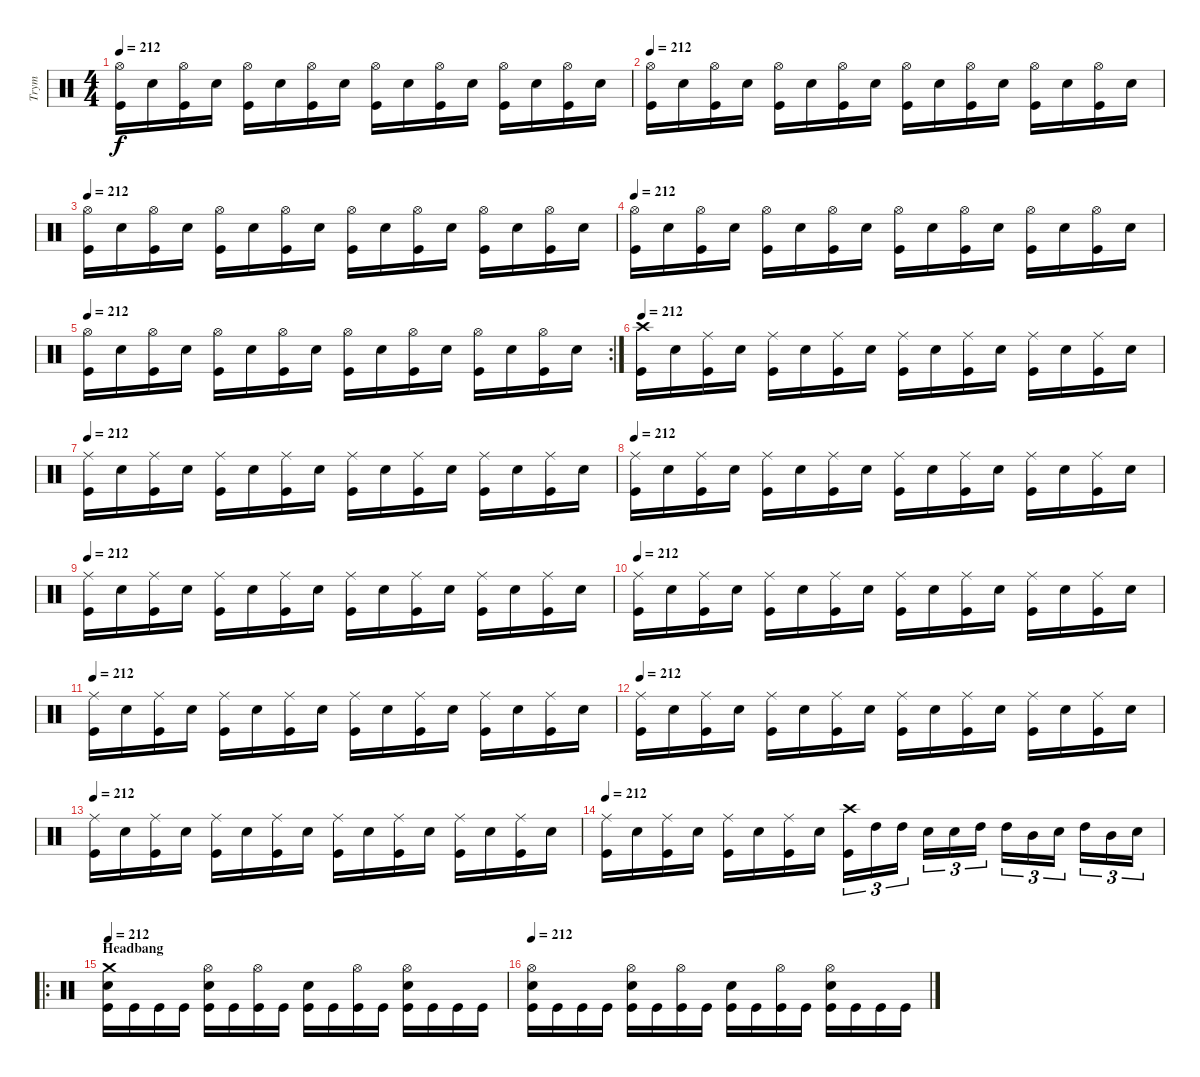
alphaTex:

\track ("Trym" "Trym") {instrument percussion}
\staff {score}
\articulation defaults
\ts (4 4)
\tempo 212
\clef neutral
\ks c
("Hi-Hat (open)" "Kick (hit)").16{dy f} "Electric Snare (hit)".16 ("Hi-Hat (open)" "Kick (hit)").16 "Electric Snare (hit)".16 ("Hi-Hat (open)" "Kick (hit)").16 "Electric Snare (hit)".16 ("Hi-Hat (open)" "Kick (hit)").16 "Electric Snare (hit)".16 ("Hi-Hat (open)" "Kick (hit)").16 "Electric Snare (hit)".16 ("Hi-Hat (open)" "Kick (hit)").16 "Electric Snare (hit)".16 ("Hi-Hat (open)" "Kick (hit)").16 "Electric Snare (hit)".16 ("Hi-Hat (open)" "Kick (hit)").16 "Electric Snare (hit)".16 |
\tempo 212
("Hi-Hat (open)" "Kick (hit)").16 "Electric Snare (hit)".16 ("Hi-Hat (open)" "Kick (hit)").16 "Electric Snare (hit)".16 ("Hi-Hat (open)" "Kick (hit)").16 "Electric Snare (hit)".16 ("Hi-Hat (open)" "Kick (hit)").16 "Electric Snare (hit)".16 ("Hi-Hat (open)" "Kick (hit)").16 "Electric Snare (hit)".16 ("Hi-Hat (open)" "Kick (hit)").16 "Electric Snare (hit)".16 ("Hi-Hat (open)" "Kick (hit)").16 "Electric Snare (hit)".16 ("Hi-Hat (open)" "Kick (hit)").16 "Electric Snare (hit)".16 |
\tempo 212
("Hi-Hat (open)" "Kick (hit)").16 "Electric Snare (hit)".16 ("Hi-Hat (open)" "Kick (hit)").16 "Electric Snare (hit)".16 ("Hi-Hat (open)" "Kick (hit)").16 "Electric Snare (hit)".16 ("Hi-Hat (open)" "Kick (hit)").16 "Electric Snare (hit)".16 ("Hi-Hat (open)" "Kick (hit)").16 "Electric Snare (hit)".16 ("Hi-Hat (open)" "Kick (hit)").16 "Electric Snare (hit)".16 ("Hi-Hat (open)" "Kick (hit)").16 "Electric Snare (hit)".16 ("Hi-Hat (open)" "Kick (hit)").16 "Electric Snare (hit)".16 |
\tempo 212
("Hi-Hat (open)" "Kick (hit)").16 "Electric Snare (hit)".16 ("Hi-Hat (open)" "Kick (hit)").16 "Electric Snare (hit)".16 ("Hi-Hat (open)" "Kick (hit)").16 "Electric Snare (hit)".16 ("Hi-Hat (open)" "Kick (hit)").16 "Electric Snare (hit)".16 ("Hi-Hat (open)" "Kick (hit)").16 "Electric Snare (hit)".16 ("Hi-Hat (open)" "Kick (hit)").16 "Electric Snare (hit)".16 ("Hi-Hat (open)" "Kick (hit)").16 "Electric Snare (hit)".16 ("Hi-Hat (open)" "Kick (hit)").16 "Electric Snare (hit)".16 |
\rc 2
\tempo 212
("Hi-Hat (open)" "Kick (hit)").16 "Electric Snare (hit)".16 ("Hi-Hat (open)" "Kick (hit)").16 "Electric Snare (hit)".16 ("Hi-Hat (open)" "Kick (hit)").16 "Electric Snare (hit)".16 ("Hi-Hat (open)" "Kick (hit)").16 "Electric Snare (hit)".16 ("Hi-Hat (open)" "Kick (hit)").16 "Electric Snare (hit)".16 ("Hi-Hat (open)" "Kick (hit)").16 "Electric Snare (hit)".16 ("Hi-Hat (open)" "Kick (hit)").16 "Electric Snare (hit)".16 ("Hi-Hat (open)" "Kick (hit)").16 "Electric Snare (hit)".16 |
\tempo 208
\tempo 212
("Crash high (hit)" "Kick (hit)").16 "Electric Snare (hit)".16 ("Ride (middle)" "Kick (hit)").16 "Electric Snare (hit)".16 ("Ride (middle)" "Kick (hit)").16 "Electric Snare (hit)".16 ("Ride (middle)" "Kick (hit)").16 "Electric Snare (hit)".16 ("Ride (middle)" "Kick (hit)").16 "Electric Snare (hit)".16 ("Ride (middle)" "Kick (hit)").16 "Electric Snare (hit)".16 ("Ride (middle)" "Kick (hit)").16 "Electric Snare (hit)".16 ("Ride (middle)" "Kick (hit)").16 "Electric Snare (hit)".16 |
\tempo 212
("Ride (middle)" "Kick (hit)").16 "Electric Snare (hit)".16 ("Ride (middle)" "Kick (hit)").16 "Electric Snare (hit)".16 ("Ride (middle)" "Kick (hit)").16 "Electric Snare (hit)".16 ("Ride (middle)" "Kick (hit)").16 "Electric Snare (hit)".16 ("Ride (middle)" "Kick (hit)").16 "Electric Snare (hit)".16 ("Ride (middle)" "Kick (hit)").16 "Electric Snare (hit)".16 ("Ride (middle)" "Kick (hit)").16 "Electric Snare (hit)".16 ("Ride (middle)" "Kick (hit)").16 "Electric Snare (hit)".16 |
\tempo 208
\tempo 212
("Ride (middle)" "Kick (hit)").16 "Electric Snare (hit)".16 ("Ride (middle)" "Kick (hit)").16 "Electric Snare (hit)".16 ("Ride (middle)" "Kick (hit)").16 "Electric Snare (hit)".16 ("Ride (middle)" "Kick (hit)").16 "Electric Snare (hit)".16 ("Ride (middle)" "Kick (hit)").16 "Electric Snare (hit)".16 ("Ride (middle)" "Kick (hit)").16 "Electric Snare (hit)".16 ("Ride (middle)" "Kick (hit)").16 "Electric Snare (hit)".16 ("Ride (middle)" "Kick (hit)").16 "Electric Snare (hit)".16 |
\tempo 212
("Ride (middle)" "Kick (hit)").16 "Electric Snare (hit)".16 ("Ride (middle)" "Kick (hit)").16 "Electric Snare (hit)".16 ("Ride (middle)" "Kick (hit)").16 "Electric Snare (hit)".16 ("Ride (middle)" "Kick (hit)").16 "Electric Snare (hit)".16 ("Ride (middle)" "Kick (hit)").16 "Electric Snare (hit)".16 ("Ride (middle)" "Kick (hit)").16 "Electric Snare (hit)".16 ("Ride (middle)" "Kick (hit)").16 "Electric Snare (hit)".16 ("Ride (middle)" "Kick (hit)").16 "Electric Snare (hit)".16 |
\tempo 208
\tempo 212
("Ride (middle)" "Kick (hit)").16 "Electric Snare (hit)".16 ("Ride (middle)" "Kick (hit)").16 "Electric Snare (hit)".16 ("Ride (middle)" "Kick (hit)").16 "Electric Snare (hit)".16 ("Ride (middle)" "Kick (hit)").16 "Electric Snare (hit)".16 ("Ride (middle)" "Kick (hit)").16 "Electric Snare (hit)".16 ("Ride (middle)" "Kick (hit)").16 "Electric Snare (hit)".16 ("Ride (middle)" "Kick (hit)").16 "Electric Snare (hit)".16 ("Ride (middle)" "Kick (hit)").16 "Electric Snare (hit)".16 |
\tempo 212
("Ride (middle)" "Kick (hit)").16 "Electric Snare (hit)".16 ("Ride (middle)" "Kick (hit)").16 "Electric Snare (hit)".16 ("Ride (middle)" "Kick (hit)").16 "Electric Snare (hit)".16 ("Ride (middle)" "Kick (hit)").16 "Electric Snare (hit)".16 ("Ride (middle)" "Kick (hit)").16 "Electric Snare (hit)".16 ("Ride (middle)" "Kick (hit)").16 "Electric Snare (hit)".16 ("Ride (middle)" "Kick (hit)").16 "Electric Snare (hit)".16 ("Ride (middle)" "Kick (hit)").16 "Electric Snare (hit)".16 |
\tempo 208
\tempo 212
("Ride (middle)" "Kick (hit)").16 "Electric Snare (hit)".16 ("Ride (middle)" "Kick (hit)").16 "Electric Snare (hit)".16 ("Ride (middle)" "Kick (hit)").16 "Electric Snare (hit)".16 ("Ride (middle)" "Kick (hit)").16 "Electric Snare (hit)".16 ("Ride (middle)" "Kick (hit)").16 "Electric Snare (hit)".16 ("Ride (middle)" "Kick (hit)").16 "Electric Snare (hit)".16 ("Ride (middle)" "Kick (hit)").16 "Electric Snare (hit)".16 ("Ride (middle)" "Kick (hit)").16 "Electric Snare (hit)".16 |
\tempo 208
\tempo 212
("Ride (middle)" "Kick (hit)").16 "Electric Snare (hit)".16 ("Ride (middle)" "Kick (hit)").16 "Electric Snare (hit)".16 ("Ride (middle)" "Kick (hit)").16 "Electric Snare (hit)".16 ("Ride (middle)" "Kick (hit)").16 "Electric Snare (hit)".16 ("Ride (middle)" "Kick (hit)").16 "Electric Snare (hit)".16 ("Ride (middle)" "Kick (hit)").16 "Electric Snare (hit)".16 ("Ride (middle)" "Kick (hit)").16 "Electric Snare (hit)".16 ("Ride (middle)" "Kick (hit)").16 "Electric Snare (hit)".16 |
\tempo 212
("Ride (middle)" "Kick (hit)").16 "Electric Snare (hit)".16 ("Ride (middle)" "Kick (hit)").16 "Electric Snare (hit)".16 ("Ride (middle)" "Kick (hit)").16 "Electric Snare (hit)".16 ("Ride (middle)" "Kick (hit)").16 "Electric Snare (hit)".16 ("Crash high (hit)" "Kick (hit)").16{tu (3 2)} "High Tom (hit)".16{tu (3 2)} "High Tom (hit)".16{tu (3 2)} "Electric Snare (hit)".16{tu (3 2)} "Electric Snare (hit)".16{tu (3 2)} "High Tom (hit)".16{tu (3 2)} "High Tom (hit)".16{tu (3 2)} "Mid Tom (hit)".16{tu (3 2)} "Electric Snare (hit)".16{tu (3 2)} "High Tom (hit)".16{tu (3 2)} "Mid Tom (hit)".16{tu (3 2)} "Electric Snare (hit)".16{tu (3 2)} |
\ro
\section ("" "Headbang")
\tempo 212
("Crash medium (hit)" "Electric Snare (hit)" "Kick (hit)").16 "Kick (hit)".16 "Kick (hit)".16 "Kick (hit)".16 ("Hi-Hat (open)" "Electric Snare (hit)" "Kick (hit)").16 "Kick (hit)".16 ("Hi-Hat (open)" "Kick (hit)").16 "Kick (hit)".16 ("Electric Snare (hit)" "Kick (hit)").16 "Kick (hit)".16 ("Hi-Hat (open)" "Kick (hit)").16 "Kick (hit)".16 ("Hi-Hat (open)" "Electric Snare (hit)" "Kick (hit)").16 "Kick (hit)".16 "Kick (hit)".16 "Kick (hit)".16 |
\tempo 212
("Hi-Hat (open)" "Electric Snare (hit)" "Kick (hit)").16 "Kick (hit)".16 "Kick (hit)".16 "Kick (hit)".16 ("Hi-Hat (open)" "Electric Snare (hit)" "Kick (hit)").16 "Kick (hit)".16 ("Hi-Hat (open)" "Kick (hit)").16 "Kick (hit)".16 ("Electric Snare (hit)" "Kick (hit)").16 "Kick (hit)".16 ("Hi-Hat (open)" "Kick (hit)").16 "Kick (hit)".16 ("Hi-Hat (open)" "Electric Snare (hit)" "Kick (hit)").16 "Kick (hit)".16 "Kick (hit)".16 "Kick (hit)".16
